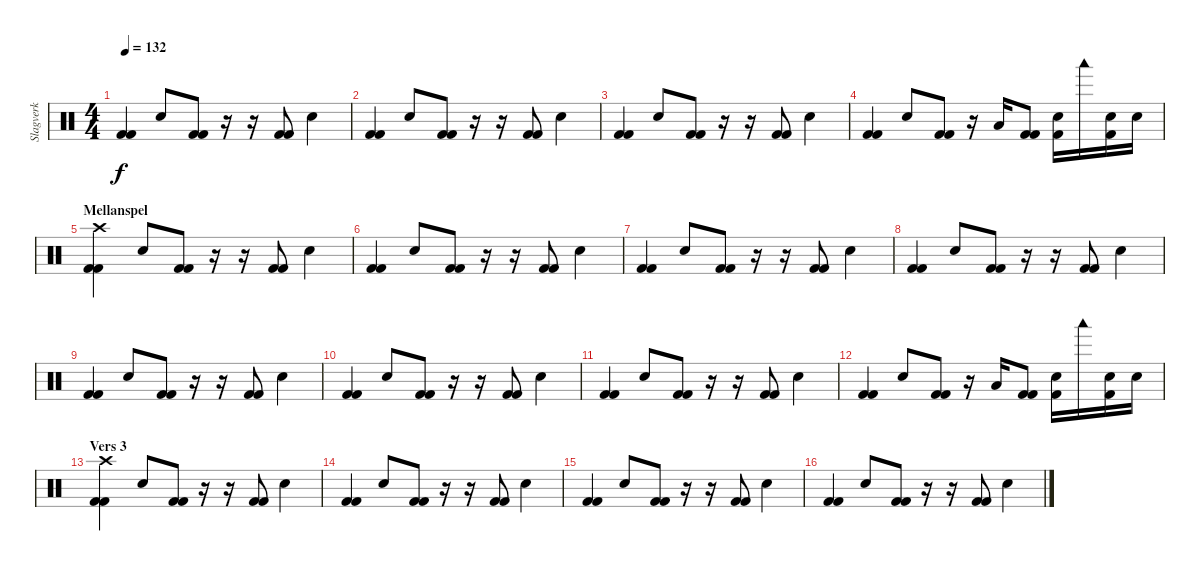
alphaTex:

\track ("Slagverk" "Slagverk") {instrument percussion}
\staff {score}
\articulation defaults
\ts (4 4)
\tempo 132
\clef neutral
\ks c
("Kick (hit) 2" "Kick (hit) 2").4{dy f} "Electric Snare (hit)".8 ("Kick (hit) 2" "Kick (hit) 2").8 r.16 r.16 ("Kick (hit) 2" "Kick (hit) 2").8 "Electric Snare (hit)".4 |
("Kick (hit) 2" "Kick (hit) 2").4 "Electric Snare (hit)".8 ("Kick (hit) 2" "Kick (hit) 2").8 r.16 r.16 ("Kick (hit) 2" "Kick (hit) 2").8 "Electric Snare (hit)".4 |
("Kick (hit) 2" "Kick (hit) 2").4 "Electric Snare (hit)".8 ("Kick (hit) 2" "Kick (hit) 2").8 r.16 r.16 ("Kick (hit) 2" "Kick (hit) 2").8 "Electric Snare (hit)".4 |
("Kick (hit) 2" "Kick (hit) 2").4 "Electric Snare (hit)".8 ("Kick (hit) 2" "Kick (hit) 2").8 r.16 "Low Tom (hit)".16 ("Kick (hit) 2" "Kick (hit) 2").8 ("Electric Snare (hit)" "Kick (hit) 2").16 "Woodblock low (hit)".16 ("Electric Snare (hit)" "Kick (hit) 2").16 "Electric Snare (hit)".16 |
\section ("" "Mellanspel")
("Kick (hit) 2" "Kick (hit) 2" "Crash high (hit)").4 "Electric Snare (hit)".8 ("Kick (hit) 2" "Kick (hit) 2").8 r.16 r.16 ("Kick (hit) 2" "Kick (hit) 2").8 "Electric Snare (hit)".4 |
("Kick (hit) 2" "Kick (hit) 2").4 "Electric Snare (hit)".8 ("Kick (hit) 2" "Kick (hit) 2").8 r.16 r.16 ("Kick (hit) 2" "Kick (hit) 2").8 "Electric Snare (hit)".4 |
("Kick (hit) 2" "Kick (hit) 2").4 "Electric Snare (hit)".8 ("Kick (hit) 2" "Kick (hit) 2").8 r.16 r.16 ("Kick (hit) 2" "Kick (hit) 2").8 "Electric Snare (hit)".4 |
("Kick (hit) 2" "Kick (hit) 2").4 "Electric Snare (hit)".8 ("Kick (hit) 2" "Kick (hit) 2").8 r.16 r.16 ("Kick (hit) 2" "Kick (hit) 2").8 "Electric Snare (hit)".4 |
("Kick (hit) 2" "Kick (hit) 2").4 "Electric Snare (hit)".8 ("Kick (hit) 2" "Kick (hit) 2").8 r.16 r.16 ("Kick (hit) 2" "Kick (hit) 2").8 "Electric Snare (hit)".4 |
("Kick (hit) 2" "Kick (hit) 2").4 "Electric Snare (hit)".8 ("Kick (hit) 2" "Kick (hit) 2").8 r.16 r.16 ("Kick (hit) 2" "Kick (hit) 2").8 "Electric Snare (hit)".4 |
("Kick (hit) 2" "Kick (hit) 2").4 "Electric Snare (hit)".8 ("Kick (hit) 2" "Kick (hit) 2").8 r.16 r.16 ("Kick (hit) 2" "Kick (hit) 2").8 "Electric Snare (hit)".4 |
("Kick (hit) 2" "Kick (hit) 2").4 "Electric Snare (hit)".8 ("Kick (hit) 2" "Kick (hit) 2").8 r.16 "Low Tom (hit)".16 ("Kick (hit) 2" "Kick (hit) 2").8 ("Electric Snare (hit)" "Kick (hit) 2").16 "Woodblock low (hit)".16 ("Electric Snare (hit)" "Kick (hit) 2").16 "Electric Snare (hit)".16 |
\section ("" "Vers 3")
("Kick (hit) 2" "Kick (hit) 2" "Crash high (hit)").4 "Electric Snare (hit)".8 ("Kick (hit) 2" "Kick (hit) 2").8 r.16 r.16 ("Kick (hit) 2" "Kick (hit) 2").8 "Electric Snare (hit)".4 |
("Kick (hit) 2" "Kick (hit) 2").4 "Electric Snare (hit)".8 ("Kick (hit) 2" "Kick (hit) 2").8 r.16 r.16 ("Kick (hit) 2" "Kick (hit) 2").8 "Electric Snare (hit)".4 |
("Kick (hit) 2" "Kick (hit) 2").4 "Electric Snare (hit)".8 ("Kick (hit) 2" "Kick (hit) 2").8 r.16 r.16 ("Kick (hit) 2" "Kick (hit) 2").8 "Electric Snare (hit)".4 |
("Kick (hit) 2" "Kick (hit) 2").4 "Electric Snare (hit)".8 ("Kick (hit) 2" "Kick (hit) 2").8 r.16 r.16 ("Kick (hit) 2" "Kick (hit) 2").8 "Electric Snare (hit)".4
